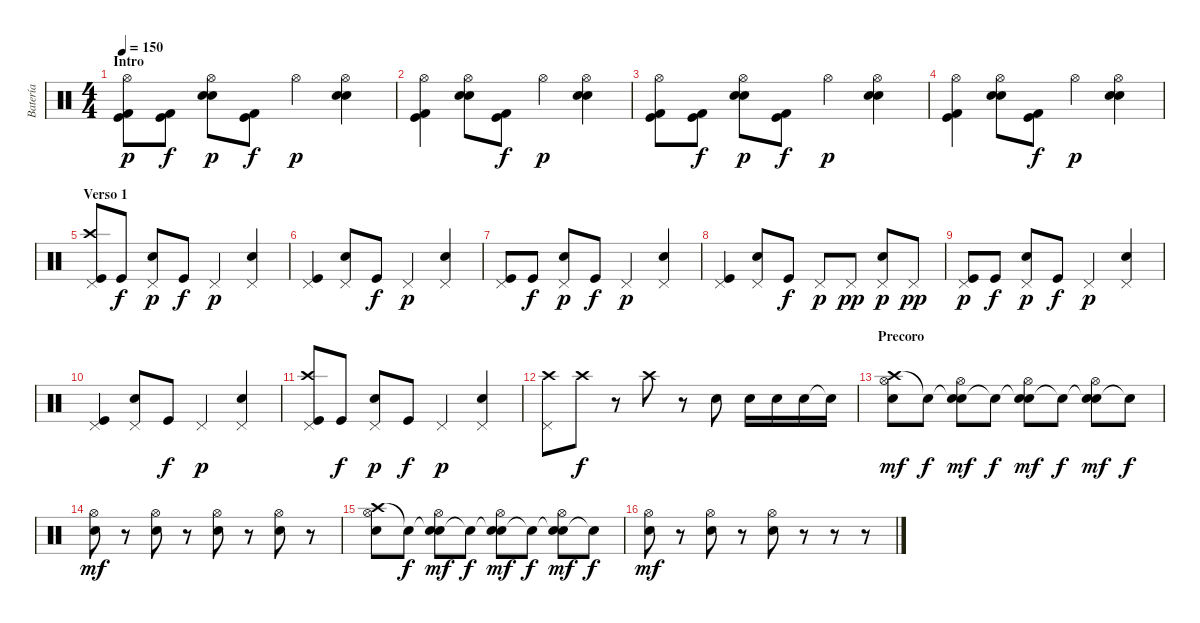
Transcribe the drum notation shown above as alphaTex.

\track ("Batería" "Batería") {instrument percussion}
\staff {score}
\articulation defaults
\ts (4 4)
\section ("" "Intro")
\tempo 150
\clef neutral
\ks c
("Kick (hit)" "Kick (hit) 2" "Hi-Hat (open)").8{dy p} ("Kick (hit)" "Kick (hit) 2").8{dy f} ("Electric Snare (hit)" "Snare (hit) 2" "Hi-Hat (open)").8{dy p} ("Kick (hit)" "Kick (hit) 2").8{dy f} "Hi-Hat (open)".4{dy p} ("Electric Snare (hit)" "Snare (hit) 2" "Hi-Hat (open)").4 |
("Kick (hit)" "Kick (hit) 2" "Hi-Hat (open)").4 ("Snare (hit) 2" "Electric Snare (hit)" "Hi-Hat (open)").8 ("Kick (hit)" "Kick (hit) 2").8{dy f} "Hi-Hat (open)".4{dy p} ("Electric Snare (hit)" "Snare (hit) 2" "Hi-Hat (open)").4 |
("Kick (hit)" "Kick (hit) 2" "Hi-Hat (open)").8 ("Kick (hit)" "Kick (hit) 2").8{dy f} ("Electric Snare (hit)" "Snare (hit) 2" "Hi-Hat (open)").8{dy p} ("Kick (hit)" "Kick (hit) 2").8{dy f} "Hi-Hat (open)".4{dy p} ("Electric Snare (hit)" "Snare (hit) 2" "Hi-Hat (open)").4 |
("Kick (hit)" "Kick (hit) 2" "Hi-Hat (open)").4 ("Snare (hit) 2" "Electric Snare (hit)" "Hi-Hat (open)").8 ("Kick (hit)" "Kick (hit) 2").8{dy f} "Hi-Hat (open)".4{dy p} ("Electric Snare (hit)" "Snare (hit) 2" "Hi-Hat (open)").4 |
\section ("" "Verso 1")
("Kick (hit)" "Crash high (hit)" "Pedal Hi-Hat (hit)").8 "Kick (hit)".8{dy f} ("Electric Snare (hit)" "Pedal Hi-Hat (hit)").8{dy p} "Kick (hit)".8{dy f} "Pedal Hi-Hat (hit)".4{dy p} ("Electric Snare (hit)" "Pedal Hi-Hat (hit)").4 |
("Kick (hit)" "Pedal Hi-Hat (hit)").4 ("Snare (hit) 2" "Pedal Hi-Hat (hit)").8 "Kick (hit)".8{dy f} "Pedal Hi-Hat (hit)".4{dy p} ("Electric Snare (hit)" "Pedal Hi-Hat (hit)").4 |
("Kick (hit)" "Pedal Hi-Hat (hit)").8 "Kick (hit)".8{dy f} ("Electric Snare (hit)" "Pedal Hi-Hat (hit)").8{dy p} "Kick (hit)".8{dy f} "Pedal Hi-Hat (hit)".4{dy p} ("Electric Snare (hit)" "Pedal Hi-Hat (hit)").4 |
("Kick (hit)" "Pedal Hi-Hat (hit)").4 ("Snare (hit) 2" "Pedal Hi-Hat (hit)").8 "Kick (hit)".8{dy f} "Pedal Hi-Hat (hit)".8{dy p} "Pedal Hi-Hat (hit)".8{dy pp} ("Electric Snare (hit)" "Pedal Hi-Hat (hit)").8{dy p} "Pedal Hi-Hat (hit)".8{dy pp} |
("Kick (hit)" "Pedal Hi-Hat (hit)").8{dy p} "Kick (hit)".8{dy f} ("Electric Snare (hit)" "Pedal Hi-Hat (hit)").8{dy p} "Kick (hit)".8{dy f} "Pedal Hi-Hat (hit)".4{dy p} ("Electric Snare (hit)" "Pedal Hi-Hat (hit)").4 |
("Kick (hit)" "Pedal Hi-Hat (hit)").4 ("Snare (hit) 2" "Pedal Hi-Hat (hit)").8 "Kick (hit)".8{dy f} "Pedal Hi-Hat (hit)".4{dy p} ("Electric Snare (hit)" "Pedal Hi-Hat (hit)").4 |
("Kick (hit)" "Crash high (hit)" "Pedal Hi-Hat (hit)").8 "Kick (hit)".8{dy f} ("Electric Snare (hit)" "Pedal Hi-Hat (hit)").8{dy p} "Kick (hit)".8{dy f} "Pedal Hi-Hat (hit)".4{dy p} ("Electric Snare (hit)" "Pedal Hi-Hat (hit)").4 |
("Crash high (hit)" "Pedal Hi-Hat (hit)").8 "Crash high (hit)".8{dy f} r.8 "Crash high (hit)".8 r.8 "Electric Snare (hit)".8 "Electric Snare (hit)".16 "Electric Snare (hit)".16 "Electric Snare (hit)".16 "Electric Snare (hit)"{t}.16 |
\section ("" "Precoro")
("Crash high (hit)" "Hi-Hat (open)" "Electric Snare (hit)").8{dy mf} "Snare (hit)"{t}.8{dy f} ("Snare (hit)"{t} "Hi-Hat (open)" "Electric Snare (hit)").8{dy mf} "Snare (hit)"{t}.8{dy f} ("Snare (hit)"{t} "Hi-Hat (open)" "Electric Snare (hit)").8{dy mf} "Snare (hit)"{t}.8{dy f} ("Snare (hit)"{t} "Hi-Hat (open)" "Electric Snare (hit)").8{dy mf} "Snare (hit)"{t}.8{dy f} |
("Hi-Hat (open)" "Electric Snare (hit)").8{dy mf} r.8 ("Hi-Hat (open)" "Electric Snare (hit)").8 r.8 ("Hi-Hat (open)" "Electric Snare (hit)").8 r.8 ("Hi-Hat (open)" "Electric Snare (hit)").8 r.8 |
("Crash high (hit)" "Hi-Hat (open)" "Electric Snare (hit)").8 "Snare (hit)"{t}.8{dy f} ("Snare (hit)"{t} "Hi-Hat (open)" "Electric Snare (hit)").8{dy mf} "Snare (hit)"{t}.8{dy f} ("Snare (hit)"{t} "Hi-Hat (open)" "Electric Snare (hit)").8{dy mf} "Snare (hit)"{t}.8{dy f} ("Snare (hit)"{t} "Hi-Hat (open)" "Electric Snare (hit)").8{dy mf} "Snare (hit)"{t}.8{dy f} |
("Hi-Hat (open)" "Electric Snare (hit)").8{dy mf} r.8 ("Hi-Hat (open)" "Electric Snare (hit)").8 r.8 ("Hi-Hat (open)" "Electric Snare (hit)").8 r.8 r.8 r.8
